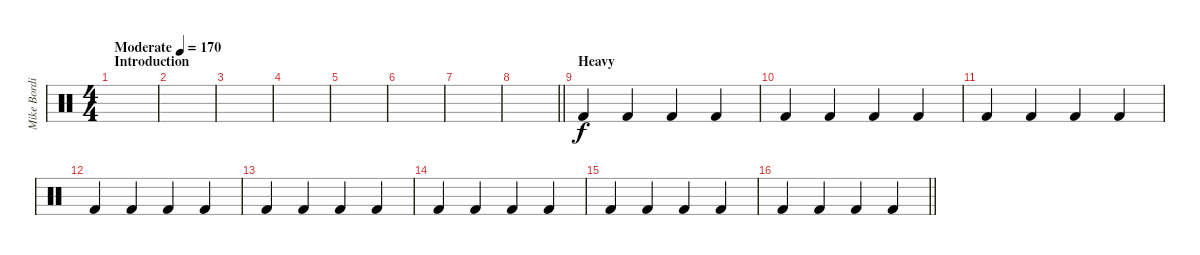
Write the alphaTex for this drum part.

\track ("Mike Bordin Backing" "Mike Bordi") {instrument percussion}
\staff {score}
\articulation defaults
\ts (4 4)
\section ("" "Introduction")
\tempo (170 "Moderate")
\clef neutral
\ks c
|
|
|
|
|
|
|
\barLineRight lightlight
|
\section ("" "Heavy")
"Kick (hit) 2".4{volume 16} "Kick (hit) 2".4 "Kick (hit) 2".4 "Kick (hit) 2".4 |
"Kick (hit) 2".4 "Kick (hit) 2".4 "Kick (hit) 2".4 "Kick (hit) 2".4 |
"Kick (hit) 2".4 "Kick (hit) 2".4 "Kick (hit) 2".4 "Kick (hit) 2".4 |
"Kick (hit) 2".4 "Kick (hit) 2".4 "Kick (hit) 2".4 "Kick (hit) 2".4 |
"Kick (hit) 2".4 "Kick (hit) 2".4 "Kick (hit) 2".4 "Kick (hit) 2".4 |
"Kick (hit) 2".4 "Kick (hit) 2".4 "Kick (hit) 2".4 "Kick (hit) 2".4 |
"Kick (hit) 2".4 "Kick (hit) 2".4 "Kick (hit) 2".4 "Kick (hit) 2".4 |
\barLineRight lightlight "Kick (hit) 2".4 "Kick (hit) 2".4 "Kick (hit) 2".4 "Kick (hit) 2".4
